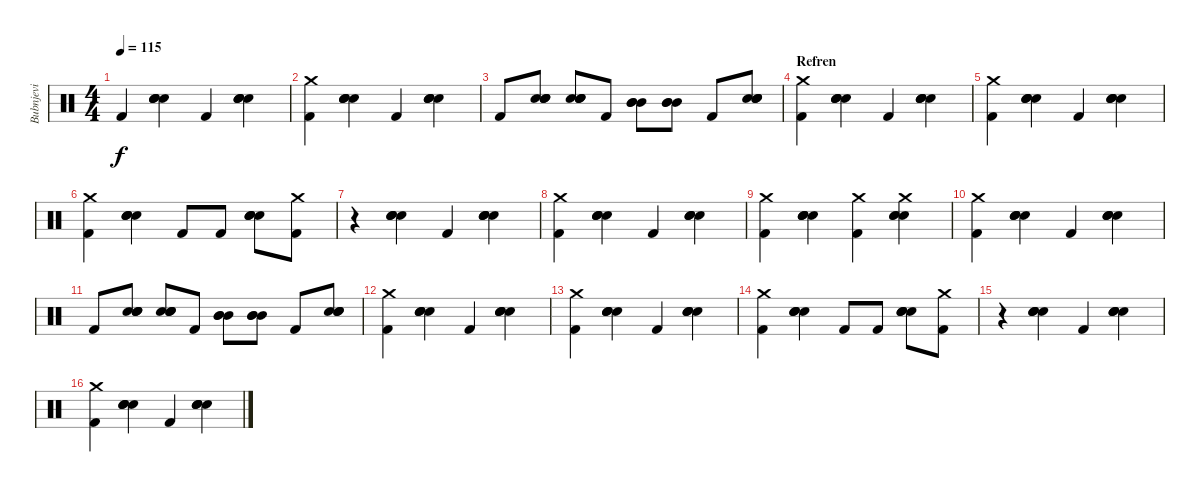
\track ("Bubnjevi" "Bubnjevi") {instrument percussion}
\staff {score}
\articulation defaults
\ts (4 4)
\tempo 115
\clef neutral
\ks c "Kick (hit) 2".4{dy f}
("Electric Snare (hit)" "Electric Snare (hit)" "Electric Snare (hit)" "Electric Snare (hit)").4 "Kick (hit) 2".4 ("Electric Snare (hit)" "Electric Snare (hit)" "Electric Snare (hit)" "Electric Snare (hit)").4 |
("Crash medium (hit)" "Kick (hit) 2").4 ("Electric Snare (hit)" "Electric Snare (hit)" "Electric Snare (hit)" "Electric Snare (hit)").4 "Kick (hit) 2".4 ("Electric Snare (hit)" "Electric Snare (hit)" "Electric Snare (hit)" "Electric Snare (hit)").4 |
"Kick (hit) 2".8 ("Electric Snare (hit)" "Electric Snare (hit)" "Electric Snare (hit)" "Electric Snare (hit)").8 ("Electric Snare (hit)" "Electric Snare (hit)" "Electric Snare (hit)" "Electric Snare (hit)").8 "Kick (hit) 2".8 ("Mid Tom (hit)" "Mid Tom (hit)" "Mid Tom (hit)").8 ("Mid Tom (hit)" "Mid Tom (hit)" "Mid Tom (hit)").8 "Kick (hit) 2".8 ("Electric Snare (hit)" "Electric Snare (hit)" "Electric Snare (hit)" "Electric Snare (hit)").8 |
\section ("" "Refren")
("Crash medium (hit)" "Kick (hit) 2").4 ("Electric Snare (hit)" "Electric Snare (hit)" "Electric Snare (hit)" "Electric Snare (hit)").4 "Kick (hit) 2".4 ("Electric Snare (hit)" "Electric Snare (hit)" "Electric Snare (hit)" "Electric Snare (hit)").4 |
("Crash medium (hit)" "Kick (hit) 2").4 ("Electric Snare (hit)" "Electric Snare (hit)" "Electric Snare (hit)" "Electric Snare (hit)").4 "Kick (hit) 2".4 ("Electric Snare (hit)" "Electric Snare (hit)" "Electric Snare (hit)" "Electric Snare (hit)").4 |
("Crash medium (hit)" "Kick (hit) 2").4 ("Electric Snare (hit)" "Electric Snare (hit)" "Electric Snare (hit)" "Electric Snare (hit)").4 "Kick (hit) 2".8 "Kick (hit) 2".8 ("Electric Snare (hit)" "Electric Snare (hit)" "Electric Snare (hit)" "Electric Snare (hit)").8 ("Crash medium (hit)" "Kick (hit) 2").8 |
r.4 ("Electric Snare (hit)" "Electric Snare (hit)" "Electric Snare (hit)" "Electric Snare (hit)").4 "Kick (hit) 2".4 ("Electric Snare (hit)" "Electric Snare (hit)" "Electric Snare (hit)" "Electric Snare (hit)").4 |
("Crash medium (hit)" "Kick (hit) 2").4 ("Electric Snare (hit)" "Electric Snare (hit)" "Electric Snare (hit)" "Electric Snare (hit)").4 "Kick (hit) 2".4 ("Electric Snare (hit)" "Electric Snare (hit)" "Electric Snare (hit)" "Electric Snare (hit)").4 |
("Crash medium (hit)" "Kick (hit) 2").4 ("Electric Snare (hit)" "Electric Snare (hit)" "Electric Snare (hit)" "Electric Snare (hit)").4 ("Crash medium (hit)" "Kick (hit) 2").4 ("Electric Snare (hit)" "Electric Snare (hit)" "Crash medium (hit)" "Electric Snare (hit)").4 |
("Crash medium (hit)" "Kick (hit) 2").4 ("Electric Snare (hit)" "Electric Snare (hit)" "Electric Snare (hit)" "Electric Snare (hit)").4 "Kick (hit) 2".4 ("Electric Snare (hit)" "Electric Snare (hit)" "Electric Snare (hit)" "Electric Snare (hit)").4 |
"Kick (hit) 2".8 ("Electric Snare (hit)" "Electric Snare (hit)" "Electric Snare (hit)" "Electric Snare (hit)").8 ("Electric Snare (hit)" "Electric Snare (hit)" "Electric Snare (hit)" "Electric Snare (hit)").8 "Kick (hit) 2".8 ("Mid Tom (hit)" "Mid Tom (hit)" "Mid Tom (hit)").8 ("Mid Tom (hit)" "Mid Tom (hit)" "Mid Tom (hit)").8 "Kick (hit) 2".8 ("Electric Snare (hit)" "Electric Snare (hit)" "Electric Snare (hit)" "Electric Snare (hit)").8 |
("Crash medium (hit)" "Kick (hit) 2").4 ("Electric Snare (hit)" "Electric Snare (hit)" "Electric Snare (hit)" "Electric Snare (hit)").4 "Kick (hit) 2".4 ("Electric Snare (hit)" "Electric Snare (hit)" "Electric Snare (hit)" "Electric Snare (hit)").4 |
("Crash medium (hit)" "Kick (hit) 2").4 ("Electric Snare (hit)" "Electric Snare (hit)" "Electric Snare (hit)" "Electric Snare (hit)").4 "Kick (hit) 2".4 ("Electric Snare (hit)" "Electric Snare (hit)" "Electric Snare (hit)" "Electric Snare (hit)").4 |
("Crash medium (hit)" "Kick (hit) 2").4 ("Electric Snare (hit)" "Electric Snare (hit)" "Electric Snare (hit)" "Electric Snare (hit)").4 "Kick (hit) 2".8 "Kick (hit) 2".8 ("Electric Snare (hit)" "Electric Snare (hit)" "Electric Snare (hit)" "Electric Snare (hit)").8 ("Crash medium (hit)" "Kick (hit) 2").8 |
r.4 ("Electric Snare (hit)" "Electric Snare (hit)" "Electric Snare (hit)" "Electric Snare (hit)").4 "Kick (hit) 2".4 ("Electric Snare (hit)" "Electric Snare (hit)" "Electric Snare (hit)" "Electric Snare (hit)").4 |
("Crash medium (hit)" "Kick (hit) 2").4 ("Electric Snare (hit)" "Electric Snare (hit)" "Electric Snare (hit)" "Electric Snare (hit)").4 "Kick (hit) 2".4 ("Electric Snare (hit)" "Electric Snare (hit)" "Electric Snare (hit)" "Electric Snare (hit)").4
